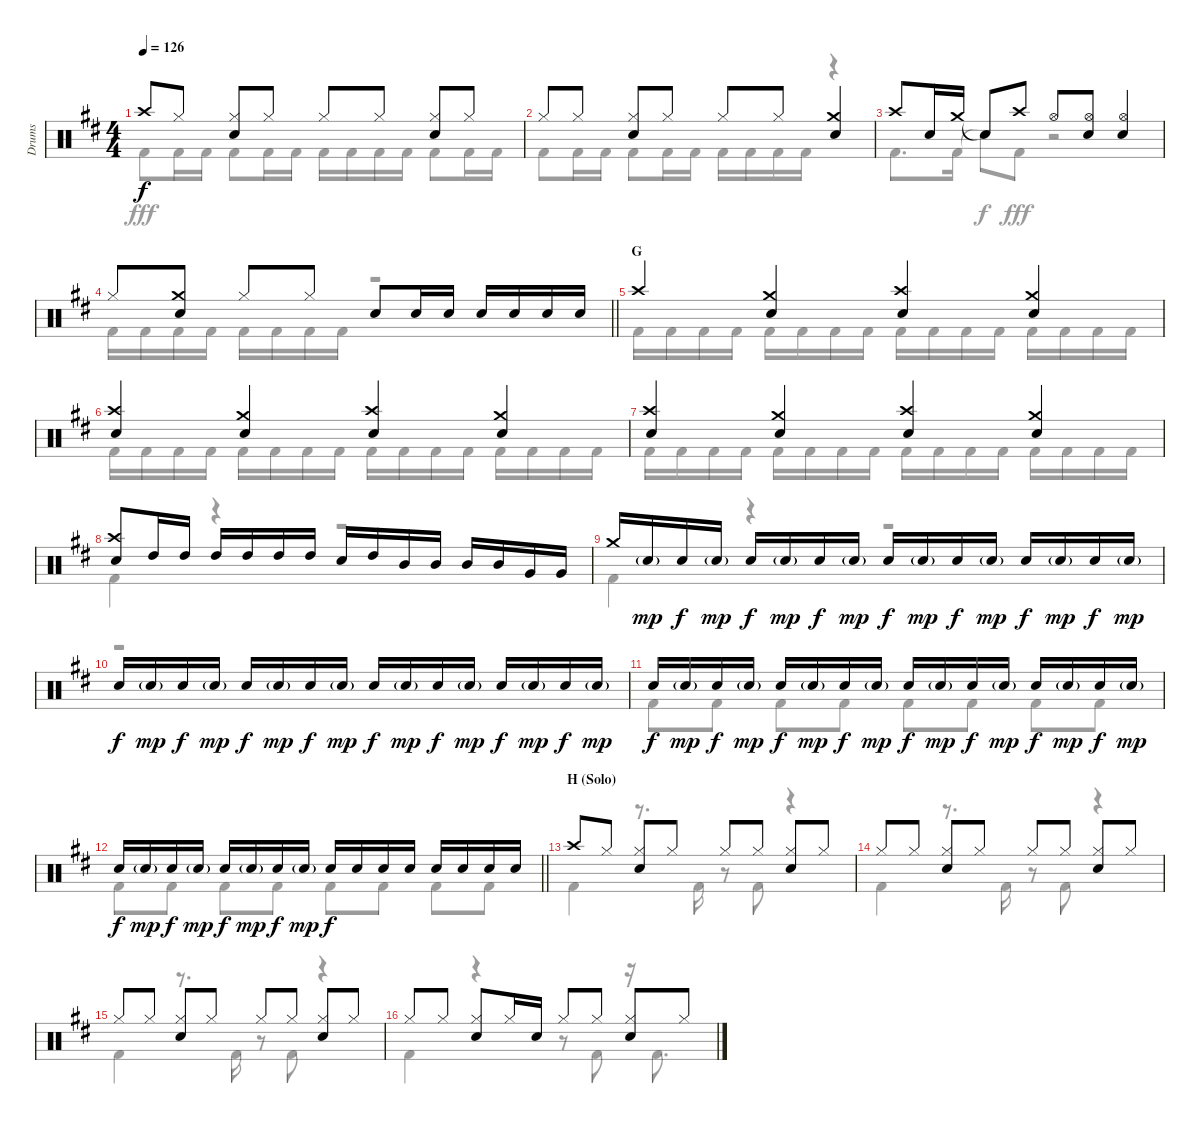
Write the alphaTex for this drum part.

\track ("Drums" "Drums") {instrument percussion}
\staff {score}
\articulation defaults
\voice
\ts (4 4)
\tempo 126
\clef neutral
\ks d "Crash high (hit)".8{dy f} "Hi-Hat (closed)".8
("Hi-Hat (closed)" "Snare (hit) 2").8 "Hi-Hat (closed)".8 "Hi-Hat (closed)".8 "Hi-Hat (closed)".8 ("Hi-Hat (closed)" "Snare (hit) 2").8 "Hi-Hat (closed)".8 |
"Hi-Hat (closed)".8 "Hi-Hat (closed)".8 ("Hi-Hat (closed)" "Snare (hit) 2").8 "Hi-Hat (closed)".8 "Hi-Hat (closed)".8 "Hi-Hat (closed)".8 ("Crash medium (hit)" "Snare (hit) 2").4 |
"Crash high (hit)".8 "Snare (hit) 2".16 "Crash medium (hit)".16 "Snare (hit) 2"{t}.8 "Crash high (hit)".8 "Hi-Hat (open)".8 ("Hi-Hat (open)" "Snare (hit) 2").8 ("Hi-Hat (open)" "Snare (hit) 2").4 |
\barLineRight lightlight "Hi-Hat (closed)".8
("Crash medium (hit)" "Snare (hit) 2").8 "Hi-Hat (closed)".8 "Hi-Hat (closed)".8 "Snare (hit) 2".8 "Snare (hit) 2".16 "Snare (hit) 2".16 "Snare (hit) 2".16 "Snare (hit) 2".16 "Snare (hit) 2".16 "Snare (hit) 2".16 |
\section ("" "G")
"Crash high (hit)".4 ("Crash medium (hit)" "Snare (hit) 2").4 ("Crash high (hit)" "Snare (hit) 2").4 ("Crash medium (hit)" "Snare (hit) 2").4 |
("Crash high (hit)" "Snare (hit) 2").4 ("Crash medium (hit)" "Snare (hit) 2").4 ("Crash high (hit)" "Snare (hit) 2").4 ("Crash medium (hit)" "Snare (hit) 2").4 |
("Crash high (hit)" "Snare (hit) 2").4 ("Crash medium (hit)" "Snare (hit) 2").4 ("Crash high (hit)" "Snare (hit) 2").4 ("Crash medium (hit)" "Snare (hit) 2").4 |
("Crash high (hit)" "Snare (hit) 2").8 "High Tom (hit)".16 "High Tom (hit)".16 "High Tom (hit)".16 "High Tom (hit)".16 "High Tom (hit)".16 "High Tom (hit)".16 "Snare (hit) 2".16 "High Tom (hit)".16 "Mid Tom (hit)".16 "Mid Tom (hit)".16 "Mid Tom (hit)".16 "Mid Tom (hit)".16 "Very Low Tom (hit)".16 "Very Low Tom (hit)".16 |
"Crash medium (hit)".16 "Snare (hit) 2"{g}.16{dy mp} "Snare (hit) 2".16{dy f} "Snare (hit) 2"{g}.16{dy mp} "Snare (hit) 2".16{dy f} "Snare (hit) 2"{g}.16{dy mp} "Snare (hit) 2".16{dy f} "Snare (hit) 2"{g}.16{dy mp} "Snare (hit) 2".16{dy f} "Snare (hit) 2"{g}.16{dy mp} "Snare (hit) 2".16{dy f} "Snare (hit) 2"{g}.16{dy mp} "Snare (hit) 2".16{dy f} "Snare (hit) 2"{g}.16{dy mp} "Snare (hit) 2".16{dy f} "Snare (hit) 2"{g}.16{dy mp} |
"Snare (hit) 2".16{dy f} "Snare (hit) 2"{g}.16{dy mp} "Snare (hit) 2".16{dy f} "Snare (hit) 2"{g}.16{dy mp} "Snare (hit) 2".16{dy f} "Snare (hit) 2"{g}.16{dy mp} "Snare (hit) 2".16{dy f} "Snare (hit) 2"{g}.16{dy mp} "Snare (hit) 2".16{dy f} "Snare (hit) 2"{g}.16{dy mp} "Snare (hit) 2".16{dy f} "Snare (hit) 2"{g}.16{dy mp} "Snare (hit) 2".16{dy f} "Snare (hit) 2"{g}.16{dy mp} "Snare (hit) 2".16{dy f} "Snare (hit) 2"{g}.16{dy mp} |
"Snare (hit) 2".16{dy f} "Snare (hit) 2"{g}.16{dy mp} "Snare (hit) 2".16{dy f} "Snare (hit) 2"{g}.16{dy mp} "Snare (hit) 2".16{dy f} "Snare (hit) 2"{g}.16{dy mp} "Snare (hit) 2".16{dy f} "Snare (hit) 2"{g}.16{dy mp} "Snare (hit) 2".16{dy f} "Snare (hit) 2"{g}.16{dy mp} "Snare (hit) 2".16{dy f} "Snare (hit) 2"{g}.16{dy mp} "Snare (hit) 2".16{dy f} "Snare (hit) 2"{g}.16{dy mp} "Snare (hit) 2".16{dy f} "Snare (hit) 2"{g}.16{dy mp} |
\barLineRight lightlight "Snare (hit) 2".16{dy f} "Snare (hit) 2"{g}.16{dy mp} "Snare (hit) 2".16{dy f} "Snare (hit) 2"{g}.16{dy mp} "Snare (hit) 2".16{dy f} "Snare (hit) 2"{g}.16{dy mp} "Snare (hit) 2".16{dy f} "Snare (hit) 2"{g}.16{dy mp} "Snare (hit) 2".16{dy f} "Snare (hit) 2".16 "Snare (hit) 2".16 "Snare (hit) 2".16 "Snare (hit) 2".16 "Snare (hit) 2".16 "Snare (hit) 2".16 "Snare (hit) 2".16
|
\section ("" "H (Solo)")
"Crash high (hit)".8 "Hi-Hat (closed)".8 ("Hi-Hat (closed)" "Snare (hit) 2").8 "Hi-Hat (closed)".8 "Hi-Hat (closed)".8 "Hi-Hat (closed)".8 ("Hi-Hat (closed)" "Snare (hit) 2").8 "Hi-Hat (closed)".8 |
"Hi-Hat (closed)".8 "Hi-Hat (closed)".8 ("Hi-Hat (closed)" "Snare (hit) 2").8 "Hi-Hat (closed)".8 "Hi-Hat (closed)".8 "Hi-Hat (closed)".8 ("Hi-Hat (closed)" "Snare (hit) 2").8 "Hi-Hat (closed)".8 |
"Hi-Hat (closed)".8 "Hi-Hat (closed)".8 ("Hi-Hat (closed)" "Snare (hit) 2").8 "Hi-Hat (closed)".8 "Hi-Hat (closed)".8 "Hi-Hat (closed)".8 ("Hi-Hat (closed)" "Snare (hit) 2").8 "Hi-Hat (closed)".8 |
"Hi-Hat (closed)".8 "Hi-Hat (closed)".8 ("Hi-Hat (closed)" "Snare (hit) 2").8 "Hi-Hat (closed)".16 "Snare (hit) 2".16 "Hi-Hat (closed)".8 "Hi-Hat (closed)".8 ("Hi-Hat (closed)" "Snare (hit) 2").8 "Hi-Hat (closed)".8
\voice
\clef neutral
\ottava regular
\simile none
\ks d "Kick (hit) 2".8{dy fff} "Kick (hit) 2".16 "Kick (hit) 2".16 "Kick (hit) 2".8 "Kick (hit) 2".16 "Kick (hit) 2".16 "Kick (hit) 2".16 "Kick (hit) 2".16 "Kick (hit) 2".16 "Kick (hit) 2".16 "Kick (hit) 2".8 "Kick (hit) 2".16 "Kick (hit) 2".16
|
"Kick (hit) 2".8 "Kick (hit) 2".16 "Kick (hit) 2".16 "Kick (hit) 2".8 "Kick (hit) 2".16 "Kick (hit) 2".16 "Kick (hit) 2".16 "Kick (hit) 2".16 "Kick (hit) 2".16 "Kick (hit) 2".16 r.4 |
"Kick (hit) 2".8{d} "Kick (hit) 2".16 "Snare (hit)"{t}.8{dy f} "Kick (hit) 2".8{dy fff} r.2 |
\barLineRight lightlight "Kick (hit) 2".16 "Kick (hit) 2".16 "Kick (hit) 2".16 "Kick (hit) 2".16 "Kick (hit) 2".16 "Kick (hit) 2".16 "Kick (hit) 2".16 "Kick (hit) 2".16
r.2 |
"Kick (hit) 2".16 "Kick (hit) 2".16 "Kick (hit) 2".16 "Kick (hit) 2".16 "Kick (hit) 2".16 "Kick (hit) 2".16 "Kick (hit) 2".16 "Kick (hit) 2".16 "Kick (hit) 2".16 "Kick (hit) 2".16 "Kick (hit) 2".16 "Kick (hit) 2".16 "Kick (hit) 2".16 "Kick (hit) 2".16 "Kick (hit) 2".16 "Kick (hit) 2".16 |
"Kick (hit) 2".16 "Kick (hit) 2".16 "Kick (hit) 2".16 "Kick (hit) 2".16 "Kick (hit) 2".16 "Kick (hit) 2".16 "Kick (hit) 2".16 "Kick (hit) 2".16 "Kick (hit) 2".16 "Kick (hit) 2".16 "Kick (hit) 2".16 "Kick (hit) 2".16 "Kick (hit) 2".16 "Kick (hit) 2".16 "Kick (hit) 2".16 "Kick (hit) 2".16 |
"Kick (hit) 2".16 "Kick (hit) 2".16 "Kick (hit) 2".16 "Kick (hit) 2".16 "Kick (hit) 2".16 "Kick (hit) 2".16 "Kick (hit) 2".16 "Kick (hit) 2".16 "Kick (hit) 2".16 "Kick (hit) 2".16 "Kick (hit) 2".16 "Kick (hit) 2".16 "Kick (hit) 2".16 "Kick (hit) 2".16 "Kick (hit) 2".16 "Kick (hit) 2".16 |
"Kick (hit) 2".4 r.4 r.2 |
"Kick (hit) 2".4 r.4 r.2 |
r.1 |
"Kick (hit) 2".8 "Kick (hit) 2".8 "Kick (hit) 2".8 "Kick (hit) 2".8 "Kick (hit) 2".8 "Kick (hit) 2".8 "Kick (hit) 2".8 "Kick (hit) 2".8 |
\barLineRight lightlight "Kick (hit) 2".8 "Kick (hit) 2".8 "Kick (hit) 2".8 "Kick (hit) 2".8 "Kick (hit) 2".8 "Kick (hit) 2".8 "Kick (hit) 2".8 "Kick (hit) 2".8
|
"Kick (hit) 2".4 r.8{d} "Kick (hit) 2".16 r.8 "Kick (hit) 2".8 r.4 |
"Kick (hit) 2".4 r.8{d} "Kick (hit) 2".16 r.8 "Kick (hit) 2".8 r.4 |
"Kick (hit) 2".4 r.8{d} "Kick (hit) 2".16 r.8 "Kick (hit) 2".8 r.4 |
"Kick (hit) 2".4 r.4 r.8 "Kick (hit) 2".8 r.16 "Kick (hit) 2".8{d}
